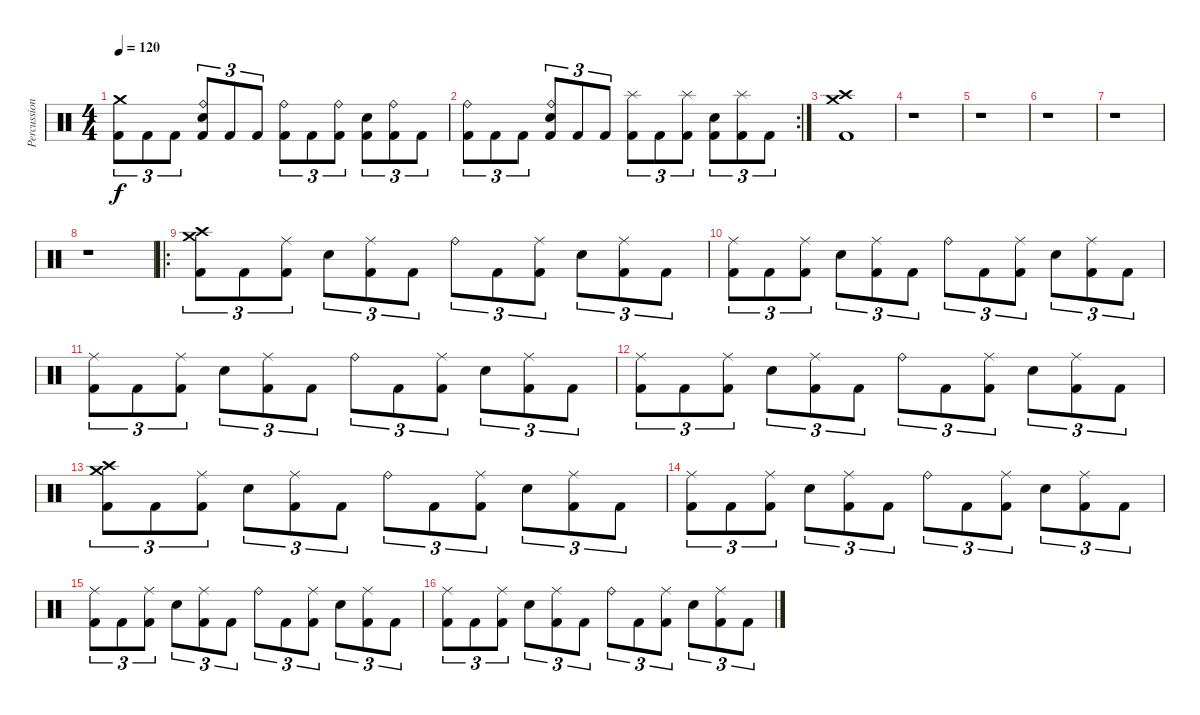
\track ("Percussions" "Percussion") {instrument percussion}
\staff {score}
\articulation defaults
\ts (4 4)
\tempo 120
\clef neutral
\ks c
("Crash medium (hit)" "Kick (hit) 2").8{tu (3 2) dy f} "Kick (hit) 2".8{tu (3 2)} "Kick (hit) 2".8{tu (3 2)} ("Ride (bell)" "Electric Snare (hit)" "Kick (hit) 2").8{tu (3 2)} "Kick (hit) 2".8{tu (3 2)} "Kick (hit) 2".8{tu (3 2)} ("Ride (bell)" "Kick (hit) 2").8{tu (3 2)} "Kick (hit) 2".8{tu (3 2)} ("Ride (bell)" "Kick (hit) 2").8{tu (3 2)} ("Electric Snare (hit)" "Kick (hit) 2").8{tu (3 2)} ("Ride (bell)" "Kick (hit) 2").8{tu (3 2)} "Kick (hit) 2".8{tu (3 2)} |
\rc 2
("Ride (bell)" "Kick (hit) 2").8{tu (3 2)} "Kick (hit) 2".8{tu (3 2)} "Kick (hit) 2".8{tu (3 2)} ("Ride (bell)" "Electric Snare (hit)" "Kick (hit) 2").8{tu (3 2)} "Kick (hit) 2".8{tu (3 2)} "Kick (hit) 2".8{tu (3 2)} ("Splash (hit)" "Kick (hit) 2").8{tu (3 2)} "Kick (hit) 2".8{tu (3 2)} ("Splash (hit)" "Kick (hit) 2").8{tu (3 2)} ("Electric Snare (hit)" "Kick (hit) 2").8{tu (3 2)} ("Splash (hit)" "Kick (hit) 2").8{tu (3 2)} "Kick (hit) 2".8{tu (3 2)} |
("Crash high (hit)" "Crash medium (hit)" "Kick (hit) 2").1 |
r.1 |
r.1 |
r.1 |
r.1 |
r.1 |
\ro
("Crash medium (hit)" "Crash high (hit)" "Kick (hit) 2").8{tu (3 2)} "Kick (hit) 2".8{tu (3 2)} ("Ride (middle)" "Kick (hit) 2").8{tu (3 2)} "Electric Snare (hit)".8{tu (3 2)} ("Ride (middle)" "Kick (hit) 2").8{tu (3 2)} "Kick (hit) 2".8{tu (3 2)} "Ride (bell)".8{tu (3 2)} "Kick (hit) 2".8{tu (3 2)} ("Ride (middle)" "Kick (hit) 2").8{tu (3 2)} "Electric Snare (hit)".8{tu (3 2)} ("Ride (middle)" "Kick (hit) 2").8{tu (3 2)} "Kick (hit) 2".8{tu (3 2)} |
("Ride (middle)" "Kick (hit) 2").8{tu (3 2)} "Kick (hit) 2".8{tu (3 2)} ("Ride (middle)" "Kick (hit) 2").8{tu (3 2)} "Electric Snare (hit)".8{tu (3 2)} ("Ride (middle)" "Kick (hit) 2").8{tu (3 2)} "Kick (hit) 2".8{tu (3 2)} "Ride (bell)".8{tu (3 2)} "Kick (hit) 2".8{tu (3 2)} ("Ride (middle)" "Kick (hit) 2").8{tu (3 2)} "Electric Snare (hit)".8{tu (3 2)} ("Ride (middle)" "Kick (hit) 2").8{tu (3 2)} "Kick (hit) 2".8{tu (3 2)} |
("Ride (middle)" "Kick (hit) 2").8{tu (3 2)} "Kick (hit) 2".8{tu (3 2)} ("Ride (middle)" "Kick (hit) 2").8{tu (3 2)} "Electric Snare (hit)".8{tu (3 2)} ("Ride (middle)" "Kick (hit) 2").8{tu (3 2)} "Kick (hit) 2".8{tu (3 2)} "Ride (bell)".8{tu (3 2)} "Kick (hit) 2".8{tu (3 2)} ("Ride (middle)" "Kick (hit) 2").8{tu (3 2)} "Electric Snare (hit)".8{tu (3 2)} ("Ride (middle)" "Kick (hit) 2").8{tu (3 2)} "Kick (hit) 2".8{tu (3 2)} |
("Ride (middle)" "Kick (hit) 2").8{tu (3 2)} "Kick (hit) 2".8{tu (3 2)} ("Ride (middle)" "Kick (hit) 2").8{tu (3 2)} "Electric Snare (hit)".8{tu (3 2)} ("Ride (middle)" "Kick (hit) 2").8{tu (3 2)} "Kick (hit) 2".8{tu (3 2)} "Ride (bell)".8{tu (3 2)} "Kick (hit) 2".8{tu (3 2)} ("Ride (middle)" "Kick (hit) 2").8{tu (3 2)} "Electric Snare (hit)".8{tu (3 2)} ("Ride (middle)" "Kick (hit) 2").8{tu (3 2)} "Kick (hit) 2".8{tu (3 2)} |
("Crash medium (hit)" "Crash high (hit)" "Kick (hit) 2").8{tu (3 2)} "Kick (hit) 2".8{tu (3 2)} ("Ride (middle)" "Kick (hit) 2").8{tu (3 2)} "Electric Snare (hit)".8{tu (3 2)} ("Ride (middle)" "Kick (hit) 2").8{tu (3 2)} "Kick (hit) 2".8{tu (3 2)} "Ride (bell)".8{tu (3 2)} "Kick (hit) 2".8{tu (3 2)} ("Ride (middle)" "Kick (hit) 2").8{tu (3 2)} "Electric Snare (hit)".8{tu (3 2)} ("Ride (middle)" "Kick (hit) 2").8{tu (3 2)} "Kick (hit) 2".8{tu (3 2)} |
("Ride (middle)" "Kick (hit) 2").8{tu (3 2)} "Kick (hit) 2".8{tu (3 2)} ("Ride (middle)" "Kick (hit) 2").8{tu (3 2)} "Electric Snare (hit)".8{tu (3 2)} ("Ride (middle)" "Kick (hit) 2").8{tu (3 2)} "Kick (hit) 2".8{tu (3 2)} "Ride (bell)".8{tu (3 2)} "Kick (hit) 2".8{tu (3 2)} ("Ride (middle)" "Kick (hit) 2").8{tu (3 2)} "Electric Snare (hit)".8{tu (3 2)} ("Ride (middle)" "Kick (hit) 2").8{tu (3 2)} "Kick (hit) 2".8{tu (3 2)} |
("Ride (middle)" "Kick (hit) 2").8{tu (3 2)} "Kick (hit) 2".8{tu (3 2)} ("Ride (middle)" "Kick (hit) 2").8{tu (3 2)} "Electric Snare (hit)".8{tu (3 2)} ("Ride (middle)" "Kick (hit) 2").8{tu (3 2)} "Kick (hit) 2".8{tu (3 2)} "Ride (bell)".8{tu (3 2)} "Kick (hit) 2".8{tu (3 2)} ("Ride (middle)" "Kick (hit) 2").8{tu (3 2)} "Electric Snare (hit)".8{tu (3 2)} ("Ride (middle)" "Kick (hit) 2").8{tu (3 2)} "Kick (hit) 2".8{tu (3 2)} |
("Ride (middle)" "Kick (hit) 2").8{tu (3 2)} "Kick (hit) 2".8{tu (3 2)} ("Ride (middle)" "Kick (hit) 2").8{tu (3 2)} "Electric Snare (hit)".8{tu (3 2)} ("Ride (middle)" "Kick (hit) 2").8{tu (3 2)} "Kick (hit) 2".8{tu (3 2)} "Ride (bell)".8{tu (3 2)} "Kick (hit) 2".8{tu (3 2)} ("Ride (middle)" "Kick (hit) 2").8{tu (3 2)} "Electric Snare (hit)".8{tu (3 2)} ("Ride (middle)" "Kick (hit) 2").8{tu (3 2)} "Kick (hit) 2".8{tu (3 2)}
